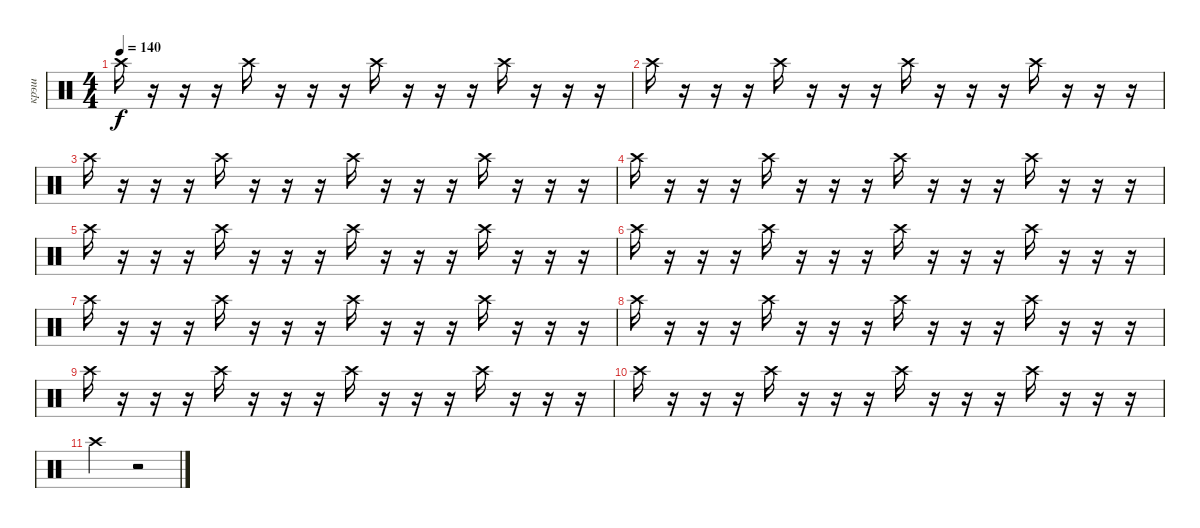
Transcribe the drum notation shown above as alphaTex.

\track ("крэш" "крэш") {mute instrument percussion}
\staff {score}
\articulation defaults
\ts (4 4)
\tempo 140
\clef neutral
\ks c "Crash high (hit)".16{dy f}
r.16 r.16 r.16 "Crash high (hit)".16 r.16 r.16 r.16 "Crash high (hit)".16 r.16 r.16 r.16 "Crash high (hit)".16 r.16 r.16 r.16 |
"Crash high (hit)".16 r.16 r.16 r.16 "Crash high (hit)".16 r.16 r.16 r.16 "Crash high (hit)".16 r.16 r.16 r.16 "Crash high (hit)".16 r.16 r.16 r.16 |
"Crash high (hit)".16 r.16 r.16 r.16 "Crash high (hit)".16 r.16 r.16 r.16 "Crash high (hit)".16 r.16 r.16 r.16 "Crash high (hit)".16 r.16 r.16 r.16 |
"Crash high (hit)".16 r.16 r.16 r.16 "Crash high (hit)".16 r.16 r.16 r.16 "Crash high (hit)".16 r.16 r.16 r.16 "Crash high (hit)".16 r.16 r.16 r.16 |
"Crash high (hit)".16 r.16 r.16 r.16 "Crash high (hit)".16 r.16 r.16 r.16 "Crash high (hit)".16 r.16 r.16 r.16 "Crash high (hit)".16 r.16 r.16 r.16 |
"Crash high (hit)".16 r.16 r.16 r.16 "Crash high (hit)".16 r.16 r.16 r.16 "Crash high (hit)".16 r.16 r.16 r.16 "Crash high (hit)".16 r.16 r.16 r.16 |
"Crash high (hit)".16 r.16 r.16 r.16 "Crash high (hit)".16 r.16 r.16 r.16 "Crash high (hit)".16 r.16 r.16 r.16 "Crash high (hit)".16 r.16 r.16 r.16 |
"Crash high (hit)".16 r.16 r.16 r.16 "Crash high (hit)".16 r.16 r.16 r.16 "Crash high (hit)".16 r.16 r.16 r.16 "Crash high (hit)".16 r.16 r.16 r.16 |
"Crash high (hit)".16 r.16 r.16 r.16 "Crash high (hit)".16 r.16 r.16 r.16 "Crash high (hit)".16 r.16 r.16 r.16 "Crash high (hit)".16 r.16 r.16 r.16 |
"Crash high (hit)".16 r.16 r.16 r.16 "Crash high (hit)".16 r.16 r.16 r.16 "Crash high (hit)".16 r.16 r.16 r.16 "Crash high (hit)".16 r.16 r.16 r.16 |
"Crash high (hit)".2 r.2
